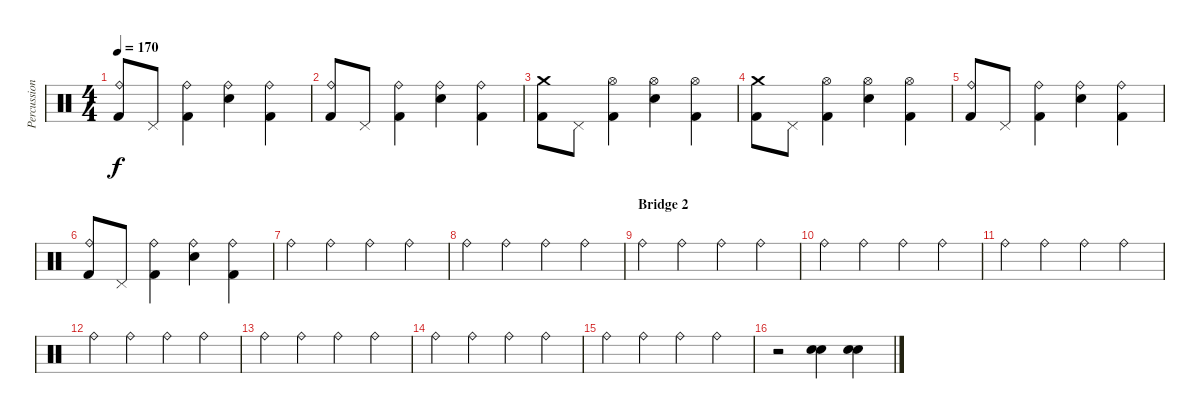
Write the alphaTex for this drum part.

\track ("Percussion" "Percussion") {instrument percussion}
\staff {score}
\articulation defaults
\ts (4 4)
\tempo 170
\clef neutral
\ks c
("Ride (bell)" "Kick (hit) 2").8{dy f} "Pedal Hi-Hat (hit)".8 ("Ride (bell)" "Kick (hit) 2").4 ("Ride (bell)" "Electric Snare (hit)").4 ("Ride (bell)" "Kick (hit) 2").4 |
("Ride (bell)" "Kick (hit) 2").8 "Pedal Hi-Hat (hit)".8 ("Ride (bell)" "Kick (hit) 2").4 ("Ride (bell)" "Electric Snare (hit)").4 ("Ride (bell)" "Kick (hit) 2").4 |
("Crash medium (hit)" "Kick (hit) 2").8 "Pedal Hi-Hat (hit)".8 ("Hi-Hat (open)" "Kick (hit) 2").4 ("Hi-Hat (open)" "Electric Snare (hit)").4 ("Hi-Hat (open)" "Kick (hit) 2").4 |
("Crash medium (hit)" "Kick (hit) 2").8 "Pedal Hi-Hat (hit)".8 ("Hi-Hat (open)" "Kick (hit) 2").4 ("Hi-Hat (open)" "Electric Snare (hit)").4 ("Hi-Hat (open)" "Kick (hit) 2").4 |
("Ride (bell)" "Kick (hit) 2").8 "Pedal Hi-Hat (hit)".8 ("Ride (bell)" "Kick (hit) 2").4 ("Ride (bell)" "Electric Snare (hit)").4 ("Ride (bell)" "Kick (hit) 2").4 |
("Ride (bell)" "Kick (hit) 2").8 "Pedal Hi-Hat (hit)".8 ("Ride (bell)" "Kick (hit) 2").4 ("Ride (bell)" "Electric Snare (hit)").4 ("Ride (bell)" "Kick (hit) 2").4 |
"Ride (bell)".4 "Ride (bell)".4 "Ride (bell)".4 "Ride (bell)".4 |
"Ride (bell)".4 "Ride (bell)".4 "Ride (bell)".4 "Ride (bell)".4 |
\section ("" "Bridge 2")
"Ride (bell)".4 "Ride (bell)".4 "Ride (bell)".4 "Ride (bell)".4 |
"Ride (bell)".4 "Ride (bell)".4 "Ride (bell)".4 "Ride (bell)".4 |
"Ride (bell)".4 "Ride (bell)".4 "Ride (bell)".4 "Ride (bell)".4 |
"Ride (bell)".4 "Ride (bell)".4 "Ride (bell)".4 "Ride (bell)".4 |
"Ride (bell)".4 "Ride (bell)".4 "Ride (bell)".4 "Ride (bell)".4 |
"Ride (bell)".4 "Ride (bell)".4 "Ride (bell)".4 "Ride (bell)".4 |
"Ride (bell)".4 "Ride (bell)".4 "Ride (bell)".4 "Ride (bell)".4 |
r.2 ("Electric Snare (hit)" "Electric Snare (hit)").4 ("Electric Snare (hit)" "Electric Snare (hit)").4
